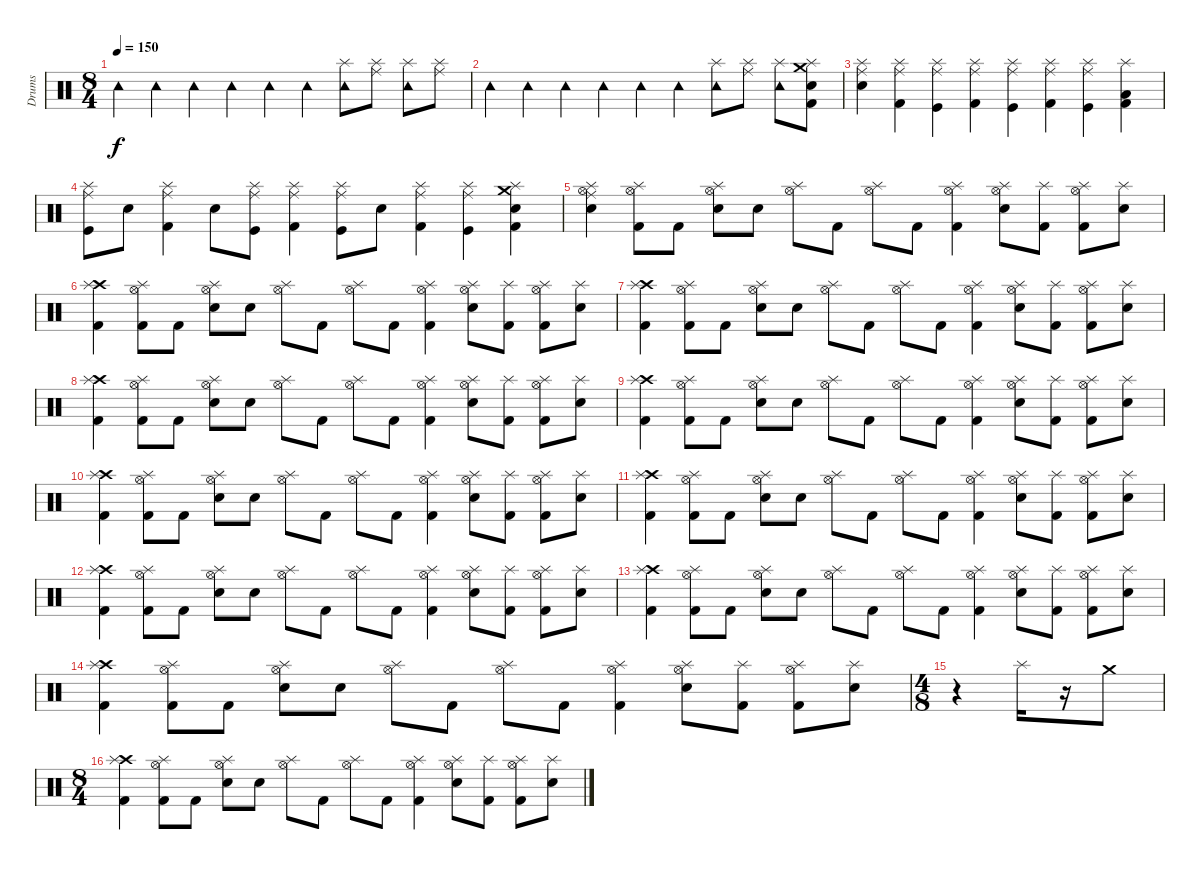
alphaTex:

\track ("Drums" "Drums") {instrument percussion}
\staff {score}
\articulation defaults
\ts (8 4)
\tempo 150
\clef neutral
\ks c "Tambourine (hit)".4{dy f} "Tambourine (hit)".4 "Tambourine (hit)".4 "Tambourine (hit)".4 "Tambourine (hit)".4 "Tambourine (hit)".4
("Tambourine (hit)" "Splash (hit)").8 ("Splash (hit)" "Ride (middle)").8 ("Tambourine (hit)" "Splash (hit)").8 ("Splash (hit)" "Ride (middle)").8 |
"Tambourine (hit)".4 "Tambourine (hit)".4 "Tambourine (hit)".4 "Tambourine (hit)".4 "Tambourine (hit)".4 "Tambourine (hit)".4 ("Tambourine (hit)" "Splash (hit)").8 ("Splash (hit)" "Ride (middle)").8 ("Tambourine (hit)" "Splash (hit)").8 ("Electric Snare (hit)" "Splash (hit)" "Kick (hit) 2" "Crash medium (hit)").8 |
("Ride (middle)" "Snare (hit) 2" "Splash (hit)").4 ("Ride (middle)" "Kick (hit) 2" "Splash (hit)").4 ("Ride (middle)" "Kick (hit)" "Splash (hit)").4 ("Ride (middle)" "Kick (hit) 2" "Splash (hit)").4 ("Ride (middle)" "Kick (hit)" "Splash (hit)").4 ("Ride (middle)" "Kick (hit) 2" "Splash (hit)").4 ("Ride (middle)" "Kick (hit)" "Splash (hit)").4 ("Low Floor Tom (hit)" "Kick (hit) 2" "Splash (hit)").4 |
("Ride (middle)" "Kick (hit)" "Splash (hit)").8 "Snare (hit) 2".8 ("Ride (middle)" "Kick (hit) 2" "Splash (hit)").4 "Snare (hit) 2".8 ("Ride (middle)" "Kick (hit)" "Splash (hit)").8 ("Ride (middle)" "Kick (hit) 2" "Splash (hit)").4 ("Ride (middle)" "Kick (hit)" "Splash (hit)").8 "Snare (hit) 2".8 ("Ride (middle)" "Kick (hit) 2" "Splash (hit)").4 ("Ride (middle)" "Kick (hit)" "Splash (hit)").4 ("Electric Snare (hit)" "Kick (hit) 2" "Crash medium (hit)" "Splash (hit)").4 |
("Hi-Hat (open)" "Splash (hit)" "Ride (middle)" "Snare (hit) 2").4 ("Hi-Hat (open)" "Kick (hit) 2" "Splash (hit)").8 "Kick (hit) 2".8 ("Hi-Hat (open)" "Electric Snare (hit)" "Splash (hit)").8 "Electric Snare (hit)".8 ("Hi-Hat (open)" "Splash (hit)").8 "Kick (hit) 2".8 ("Hi-Hat (open)" "Splash (hit)").8 "Kick (hit) 2".8 ("Hi-Hat (open)" "Kick (hit) 2" "Splash (hit)").4 ("Hi-Hat (open)" "Electric Snare (hit)" "Splash (hit)").8 ("Kick (hit) 2" "Splash (hit)").8 ("Hi-Hat (open)" "Kick (hit) 2" "Splash (hit)").8 ("Electric Snare (hit)" "Splash (hit)").8 |
("Crash high (hit)" "Kick (hit) 2" "Splash (hit)").4 ("Hi-Hat (open)" "Kick (hit) 2" "Splash (hit)").8 "Kick (hit) 2".8 ("Hi-Hat (open)" "Electric Snare (hit)" "Splash (hit)").8 "Electric Snare (hit)".8 ("Hi-Hat (open)" "Splash (hit)").8 "Kick (hit) 2".8 ("Hi-Hat (open)" "Splash (hit)").8 "Kick (hit) 2".8 ("Hi-Hat (open)" "Kick (hit) 2" "Splash (hit)").4 ("Hi-Hat (open)" "Electric Snare (hit)" "Splash (hit)").8 ("Kick (hit) 2" "Splash (hit)").8 ("Hi-Hat (open)" "Kick (hit) 2" "Splash (hit)").8 ("Electric Snare (hit)" "Splash (hit)").8 |
("Crash high (hit)" "Kick (hit) 2" "Splash (hit)").4 ("Hi-Hat (open)" "Kick (hit) 2" "Splash (hit)").8 "Kick (hit) 2".8 ("Hi-Hat (open)" "Electric Snare (hit)" "Splash (hit)").8 "Electric Snare (hit)".8 ("Hi-Hat (open)" "Splash (hit)").8 "Kick (hit) 2".8 ("Hi-Hat (open)" "Splash (hit)").8 "Kick (hit) 2".8 ("Hi-Hat (open)" "Kick (hit) 2" "Splash (hit)").4 ("Hi-Hat (open)" "Electric Snare (hit)" "Splash (hit)").8 ("Kick (hit) 2" "Splash (hit)").8 ("Hi-Hat (open)" "Kick (hit) 2" "Splash (hit)").8 ("Electric Snare (hit)" "Splash (hit)").8 |
("Crash high (hit)" "Kick (hit) 2" "Splash (hit)").4 ("Hi-Hat (open)" "Kick (hit) 2" "Splash (hit)").8 "Kick (hit) 2".8 ("Hi-Hat (open)" "Electric Snare (hit)" "Splash (hit)").8 "Electric Snare (hit)".8 ("Hi-Hat (open)" "Splash (hit)").8 "Kick (hit) 2".8 ("Hi-Hat (open)" "Splash (hit)").8 "Kick (hit) 2".8 ("Hi-Hat (open)" "Kick (hit) 2" "Splash (hit)").4 ("Hi-Hat (open)" "Electric Snare (hit)" "Splash (hit)").8 ("Kick (hit) 2" "Splash (hit)").8 ("Hi-Hat (open)" "Kick (hit) 2" "Splash (hit)").8 ("Electric Snare (hit)" "Splash (hit)").8 |
("Crash high (hit)" "Kick (hit) 2" "Splash (hit)").4 ("Hi-Hat (open)" "Kick (hit) 2" "Splash (hit)").8 "Kick (hit) 2".8 ("Hi-Hat (open)" "Electric Snare (hit)" "Splash (hit)").8 "Electric Snare (hit)".8 ("Hi-Hat (open)" "Splash (hit)").8 "Kick (hit) 2".8 ("Hi-Hat (open)" "Splash (hit)").8 "Kick (hit) 2".8 ("Hi-Hat (open)" "Kick (hit) 2" "Splash (hit)").4 ("Hi-Hat (open)" "Electric Snare (hit)" "Splash (hit)").8 ("Kick (hit) 2" "Splash (hit)").8 ("Hi-Hat (open)" "Kick (hit) 2" "Splash (hit)").8 ("Electric Snare (hit)" "Splash (hit)").8 |
("Crash high (hit)" "Kick (hit) 2" "Splash (hit)").4 ("Hi-Hat (open)" "Kick (hit) 2" "Splash (hit)").8 "Kick (hit) 2".8 ("Hi-Hat (open)" "Electric Snare (hit)" "Splash (hit)").8 "Electric Snare (hit)".8 ("Hi-Hat (open)" "Splash (hit)").8 "Kick (hit) 2".8 ("Hi-Hat (open)" "Splash (hit)").8 "Kick (hit) 2".8 ("Hi-Hat (open)" "Kick (hit) 2" "Splash (hit)").4 ("Hi-Hat (open)" "Electric Snare (hit)" "Splash (hit)").8 ("Kick (hit) 2" "Splash (hit)").8 ("Hi-Hat (open)" "Kick (hit) 2" "Splash (hit)").8 ("Electric Snare (hit)" "Splash (hit)").8 |
("Crash high (hit)" "Kick (hit) 2" "Splash (hit)").4 ("Hi-Hat (open)" "Kick (hit) 2" "Splash (hit)").8 "Kick (hit) 2".8 ("Hi-Hat (open)" "Electric Snare (hit)" "Splash (hit)").8 "Electric Snare (hit)".8 ("Hi-Hat (open)" "Splash (hit)").8 "Kick (hit) 2".8 ("Hi-Hat (open)" "Splash (hit)").8 "Kick (hit) 2".8 ("Hi-Hat (open)" "Kick (hit) 2" "Splash (hit)").4 ("Hi-Hat (open)" "Electric Snare (hit)" "Splash (hit)").8 ("Kick (hit) 2" "Splash (hit)").8 ("Hi-Hat (open)" "Kick (hit) 2" "Splash (hit)").8 ("Electric Snare (hit)" "Splash (hit)").8 |
("Crash high (hit)" "Kick (hit) 2" "Splash (hit)").4 ("Hi-Hat (open)" "Kick (hit) 2" "Splash (hit)").8 "Kick (hit) 2".8 ("Hi-Hat (open)" "Electric Snare (hit)" "Splash (hit)").8 "Electric Snare (hit)".8 ("Hi-Hat (open)" "Splash (hit)").8 "Kick (hit) 2".8 ("Hi-Hat (open)" "Splash (hit)").8 "Kick (hit) 2".8 ("Hi-Hat (open)" "Kick (hit) 2" "Splash (hit)").4 ("Hi-Hat (open)" "Electric Snare (hit)" "Splash (hit)").8 ("Kick (hit) 2" "Splash (hit)").8 ("Hi-Hat (open)" "Kick (hit) 2" "Splash (hit)").8 ("Electric Snare (hit)" "Splash (hit)").8 |
("Crash high (hit)" "Kick (hit) 2" "Splash (hit)").4 ("Hi-Hat (open)" "Kick (hit) 2" "Splash (hit)").8 "Kick (hit) 2".8 ("Hi-Hat (open)" "Electric Snare (hit)" "Splash (hit)").8 "Electric Snare (hit)".8 ("Hi-Hat (open)" "Splash (hit)").8 "Kick (hit) 2".8 ("Hi-Hat (open)" "Splash (hit)").8 "Kick (hit) 2".8 ("Hi-Hat (open)" "Kick (hit) 2" "Splash (hit)").4 ("Hi-Hat (open)" "Electric Snare (hit)" "Splash (hit)").8 ("Kick (hit) 2" "Splash (hit)").8 ("Hi-Hat (open)" "Kick (hit) 2" "Splash (hit)").8 ("Electric Snare (hit)" "Splash (hit)").8 |
("Crash high (hit)" "Kick (hit) 2" "Splash (hit)").4 ("Hi-Hat (open)" "Kick (hit) 2" "Splash (hit)").8 "Kick (hit) 2".8 ("Hi-Hat (open)" "Electric Snare (hit)" "Splash (hit)").8 "Electric Snare (hit)".8 ("Hi-Hat (open)" "Splash (hit)").8 "Kick (hit) 2".8 ("Hi-Hat (open)" "Splash (hit)").8 "Kick (hit) 2".8 ("Hi-Hat (open)" "Kick (hit) 2" "Splash (hit)").4 ("Hi-Hat (open)" "Electric Snare (hit)" "Splash (hit)").8 ("Kick (hit) 2" "Splash (hit)").8 ("Hi-Hat (open)" "Kick (hit) 2" "Splash (hit)").8 ("Electric Snare (hit)" "Splash (hit)").8 |
\ts (4 8)
r.4 "Splash (hit)".16 r.16 "Crash medium (hit)".8 |
\ts (8 4)
("Crash high (hit)" "Kick (hit) 2" "Splash (hit)").4 ("Hi-Hat (open)" "Kick (hit) 2" "Splash (hit)").8 "Kick (hit) 2".8 ("Hi-Hat (open)" "Electric Snare (hit)" "Splash (hit)").8 "Electric Snare (hit)".8 ("Hi-Hat (open)" "Splash (hit)").8 "Kick (hit) 2".8 ("Hi-Hat (open)" "Splash (hit)").8 "Kick (hit) 2".8 ("Hi-Hat (open)" "Kick (hit) 2" "Splash (hit)").4 ("Hi-Hat (open)" "Electric Snare (hit)" "Splash (hit)").8 ("Kick (hit) 2" "Splash (hit)").8 ("Hi-Hat (open)" "Kick (hit) 2" "Splash (hit)").8 ("Electric Snare (hit)" "Splash (hit)").8
